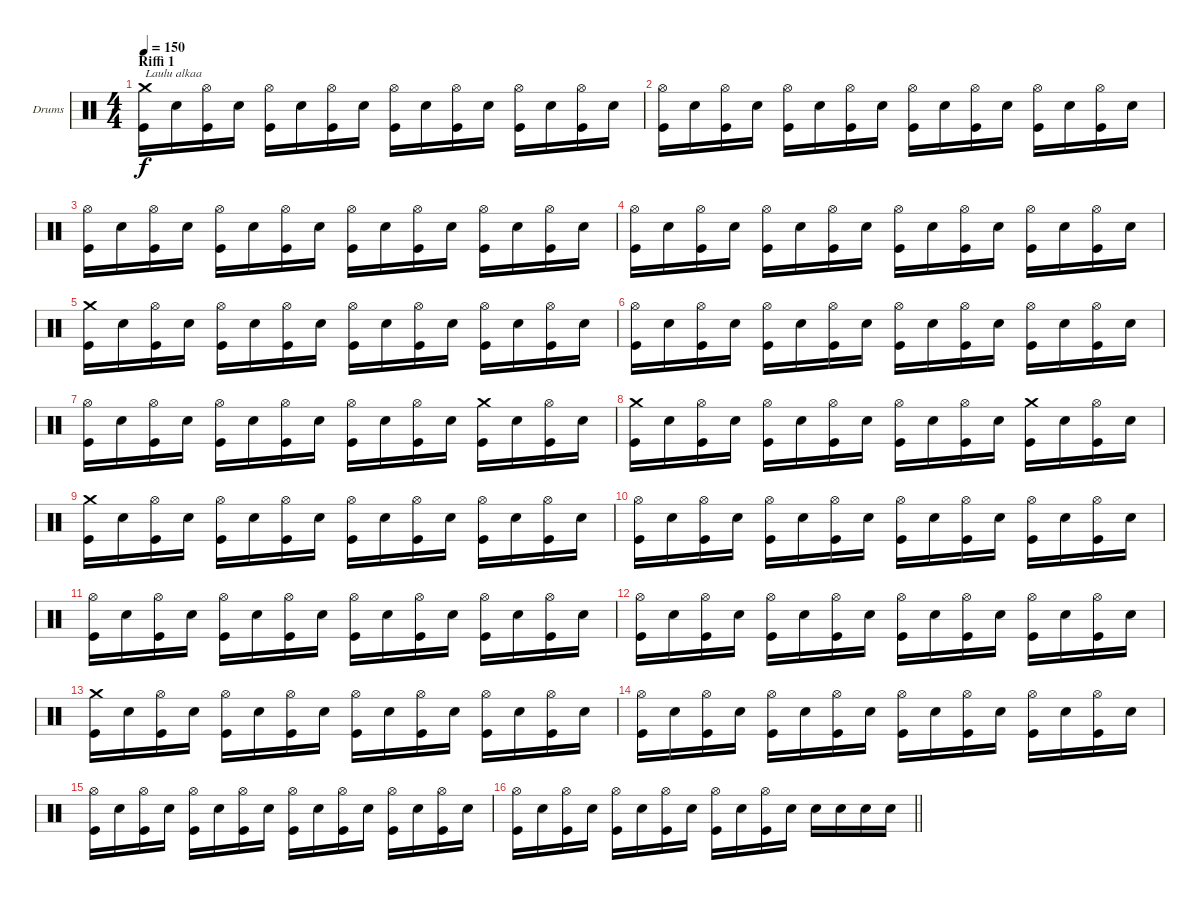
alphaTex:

\bracketExtendMode groupsimilarinstruments
\firstSystemTrackNameOrientation horizontal
\otherSystemsTrackNameOrientation horizontal
\track ("Drumkit" "Drums") {instrument percussion}
\staff {score}
\articulation defaults
\ts (4 4)
\section ("" "Riffi 1")
\tempo 150
\clef neutral
\ks c
("Crash medium (hit)" "Kick (hit)").16{txt "Laulu alkaa" dy f} "Snare (hit) 2".16 ("Hi-Hat (open)" "Kick (hit)").16 "Snare (hit) 2".16 ("Hi-Hat (open)" "Kick (hit)").16 "Snare (hit) 2".16 ("Hi-Hat (open)" "Kick (hit)").16 "Snare (hit) 2".16 ("Hi-Hat (open)" "Kick (hit)").16 "Snare (hit) 2".16 ("Hi-Hat (open)" "Kick (hit)").16 "Snare (hit) 2".16 ("Hi-Hat (open)" "Kick (hit)").16 "Snare (hit) 2".16 ("Hi-Hat (open)" "Kick (hit)").16 "Snare (hit) 2".16 |
("Hi-Hat (open)" "Kick (hit)").16 "Snare (hit) 2".16 ("Hi-Hat (open)" "Kick (hit)").16 "Snare (hit) 2".16 ("Hi-Hat (open)" "Kick (hit)").16 "Snare (hit) 2".16 ("Hi-Hat (open)" "Kick (hit)").16 "Snare (hit) 2".16 ("Hi-Hat (open)" "Kick (hit)").16 "Snare (hit) 2".16 ("Hi-Hat (open)" "Kick (hit)").16 "Snare (hit) 2".16 ("Hi-Hat (open)" "Kick (hit)").16 "Snare (hit) 2".16 ("Hi-Hat (open)" "Kick (hit)").16 "Snare (hit) 2".16 |
("Hi-Hat (open)" "Kick (hit)").16 "Snare (hit) 2".16 ("Hi-Hat (open)" "Kick (hit)").16 "Snare (hit) 2".16 ("Hi-Hat (open)" "Kick (hit)").16 "Snare (hit) 2".16 ("Hi-Hat (open)" "Kick (hit)").16 "Snare (hit) 2".16 ("Hi-Hat (open)" "Kick (hit)").16 "Snare (hit) 2".16 ("Hi-Hat (open)" "Kick (hit)").16 "Snare (hit) 2".16 ("Hi-Hat (open)" "Kick (hit)").16 "Snare (hit) 2".16 ("Hi-Hat (open)" "Kick (hit)").16 "Snare (hit) 2".16 |
("Hi-Hat (open)" "Kick (hit)").16 "Snare (hit) 2".16 ("Hi-Hat (open)" "Kick (hit)").16 "Snare (hit) 2".16 ("Hi-Hat (open)" "Kick (hit)").16 "Snare (hit) 2".16 ("Hi-Hat (open)" "Kick (hit)").16 "Snare (hit) 2".16 ("Hi-Hat (open)" "Kick (hit)").16 "Snare (hit) 2".16 ("Hi-Hat (open)" "Kick (hit)").16 "Snare (hit) 2".16 ("Hi-Hat (open)" "Kick (hit)").16 "Snare (hit) 2".16 ("Hi-Hat (open)" "Kick (hit)").16 "Snare (hit) 2".16 |
("Crash medium (hit)" "Kick (hit)").16 "Snare (hit) 2".16 ("Hi-Hat (open)" "Kick (hit)").16 "Snare (hit) 2".16 ("Hi-Hat (open)" "Kick (hit)").16 "Snare (hit) 2".16 ("Hi-Hat (open)" "Kick (hit)").16 "Snare (hit) 2".16 ("Hi-Hat (open)" "Kick (hit)").16 "Snare (hit) 2".16 ("Hi-Hat (open)" "Kick (hit)").16 "Snare (hit) 2".16 ("Hi-Hat (open)" "Kick (hit)").16 "Snare (hit) 2".16 ("Hi-Hat (open)" "Kick (hit)").16 "Snare (hit) 2".16 |
("Hi-Hat (open)" "Kick (hit)").16 "Snare (hit) 2".16 ("Hi-Hat (open)" "Kick (hit)").16 "Snare (hit) 2".16 ("Hi-Hat (open)" "Kick (hit)").16 "Snare (hit) 2".16 ("Hi-Hat (open)" "Kick (hit)").16 "Snare (hit) 2".16 ("Hi-Hat (open)" "Kick (hit)").16 "Snare (hit) 2".16 ("Hi-Hat (open)" "Kick (hit)").16 "Snare (hit) 2".16 ("Hi-Hat (open)" "Kick (hit)").16 "Snare (hit) 2".16 ("Hi-Hat (open)" "Kick (hit)").16 "Snare (hit) 2".16 |
("Hi-Hat (open)" "Kick (hit)").16 "Snare (hit) 2".16 ("Hi-Hat (open)" "Kick (hit)").16 "Snare (hit) 2".16 ("Hi-Hat (open)" "Kick (hit)").16 "Snare (hit) 2".16 ("Hi-Hat (open)" "Kick (hit)").16 "Snare (hit) 2".16 ("Hi-Hat (open)" "Kick (hit)").16 "Snare (hit) 2".16 ("Hi-Hat (open)" "Kick (hit)").16 "Snare (hit) 2".16 ("Crash medium (hit)" "Kick (hit)").16 "Snare (hit) 2".16 ("Hi-Hat (open)" "Kick (hit)").16 "Snare (hit) 2".16 |
("Crash medium (hit)" "Kick (hit)").16 "Snare (hit) 2".16 ("Hi-Hat (open)" "Kick (hit)").16 "Snare (hit) 2".16 ("Hi-Hat (open)" "Kick (hit)").16 "Snare (hit) 2".16 ("Hi-Hat (open)" "Kick (hit)").16 "Snare (hit) 2".16 ("Hi-Hat (open)" "Kick (hit)").16 "Snare (hit) 2".16 ("Hi-Hat (open)" "Kick (hit)").16 "Snare (hit) 2".16 ("Crash medium (hit)" "Kick (hit)").16 "Snare (hit) 2".16 ("Hi-Hat (open)" "Kick (hit)").16 "Snare (hit) 2".16 |
("Crash medium (hit)" "Kick (hit)").16 "Snare (hit) 2".16 ("Hi-Hat (open)" "Kick (hit)").16 "Snare (hit) 2".16 ("Hi-Hat (open)" "Kick (hit)").16 "Snare (hit) 2".16 ("Hi-Hat (open)" "Kick (hit)").16 "Snare (hit) 2".16 ("Hi-Hat (open)" "Kick (hit)").16 "Snare (hit) 2".16 ("Hi-Hat (open)" "Kick (hit)").16 "Snare (hit) 2".16 ("Hi-Hat (open)" "Kick (hit)").16 "Snare (hit) 2".16 ("Hi-Hat (open)" "Kick (hit)").16 "Snare (hit) 2".16 |
("Hi-Hat (open)" "Kick (hit)").16 "Snare (hit) 2".16 ("Hi-Hat (open)" "Kick (hit)").16 "Snare (hit) 2".16 ("Hi-Hat (open)" "Kick (hit)").16 "Snare (hit) 2".16 ("Hi-Hat (open)" "Kick (hit)").16 "Snare (hit) 2".16 ("Hi-Hat (open)" "Kick (hit)").16 "Snare (hit) 2".16 ("Hi-Hat (open)" "Kick (hit)").16 "Snare (hit) 2".16 ("Hi-Hat (open)" "Kick (hit)").16 "Snare (hit) 2".16 ("Hi-Hat (open)" "Kick (hit)").16 "Snare (hit) 2".16 |
("Hi-Hat (open)" "Kick (hit)").16 "Snare (hit) 2".16 ("Hi-Hat (open)" "Kick (hit)").16 "Snare (hit) 2".16 ("Hi-Hat (open)" "Kick (hit)").16 "Snare (hit) 2".16 ("Hi-Hat (open)" "Kick (hit)").16 "Snare (hit) 2".16 ("Hi-Hat (open)" "Kick (hit)").16 "Snare (hit) 2".16 ("Hi-Hat (open)" "Kick (hit)").16 "Snare (hit) 2".16 ("Hi-Hat (open)" "Kick (hit)").16 "Snare (hit) 2".16 ("Hi-Hat (open)" "Kick (hit)").16 "Snare (hit) 2".16 |
("Hi-Hat (open)" "Kick (hit)").16 "Snare (hit) 2".16 ("Hi-Hat (open)" "Kick (hit)").16 "Snare (hit) 2".16 ("Hi-Hat (open)" "Kick (hit)").16 "Snare (hit) 2".16 ("Hi-Hat (open)" "Kick (hit)").16 "Snare (hit) 2".16 ("Hi-Hat (open)" "Kick (hit)").16 "Snare (hit) 2".16 ("Hi-Hat (open)" "Kick (hit)").16 "Snare (hit) 2".16 ("Hi-Hat (open)" "Kick (hit)").16 "Snare (hit) 2".16 ("Hi-Hat (open)" "Kick (hit)").16 "Snare (hit) 2".16 |
("Crash medium (hit)" "Kick (hit)").16 "Snare (hit) 2".16 ("Hi-Hat (open)" "Kick (hit)").16 "Snare (hit) 2".16 ("Hi-Hat (open)" "Kick (hit)").16 "Snare (hit) 2".16 ("Hi-Hat (open)" "Kick (hit)").16 "Snare (hit) 2".16 ("Hi-Hat (open)" "Kick (hit)").16 "Snare (hit) 2".16 ("Hi-Hat (open)" "Kick (hit)").16 "Snare (hit) 2".16 ("Hi-Hat (open)" "Kick (hit)").16 "Snare (hit) 2".16 ("Hi-Hat (open)" "Kick (hit)").16 "Snare (hit) 2".16 |
("Hi-Hat (open)" "Kick (hit)").16 "Snare (hit) 2".16 ("Hi-Hat (open)" "Kick (hit)").16 "Snare (hit) 2".16 ("Hi-Hat (open)" "Kick (hit)").16 "Snare (hit) 2".16 ("Hi-Hat (open)" "Kick (hit)").16 "Snare (hit) 2".16 ("Hi-Hat (open)" "Kick (hit)").16 "Snare (hit) 2".16 ("Hi-Hat (open)" "Kick (hit)").16 "Snare (hit) 2".16 ("Hi-Hat (open)" "Kick (hit)").16 "Snare (hit) 2".16 ("Hi-Hat (open)" "Kick (hit)").16 "Snare (hit) 2".16 |
("Hi-Hat (open)" "Kick (hit)").16 "Snare (hit) 2".16 ("Hi-Hat (open)" "Kick (hit)").16 "Snare (hit) 2".16 ("Hi-Hat (open)" "Kick (hit)").16 "Snare (hit) 2".16 ("Hi-Hat (open)" "Kick (hit)").16 "Snare (hit) 2".16 ("Hi-Hat (open)" "Kick (hit)").16 "Snare (hit) 2".16 ("Hi-Hat (open)" "Kick (hit)").16 "Snare (hit) 2".16 ("Hi-Hat (open)" "Kick (hit)").16 "Snare (hit) 2".16 ("Hi-Hat (open)" "Kick (hit)").16 "Snare (hit) 2".16 |
\barLineRight lightlight
("Hi-Hat (open)" "Kick (hit)").16 "Snare (hit) 2".16 ("Hi-Hat (open)" "Kick (hit)").16 "Snare (hit) 2".16 ("Hi-Hat (open)" "Kick (hit)").16 "Snare (hit) 2".16 ("Hi-Hat (open)" "Kick (hit)").16 "Snare (hit) 2".16 ("Hi-Hat (open)" "Kick (hit)").16 "Snare (hit) 2".16 ("Hi-Hat (open)" "Kick (hit)").16 "Snare (hit) 2".16 "Snare (hit) 2".16 "Snare (hit) 2".16 "Snare (hit) 2".16 "Snare (hit) 2".16
